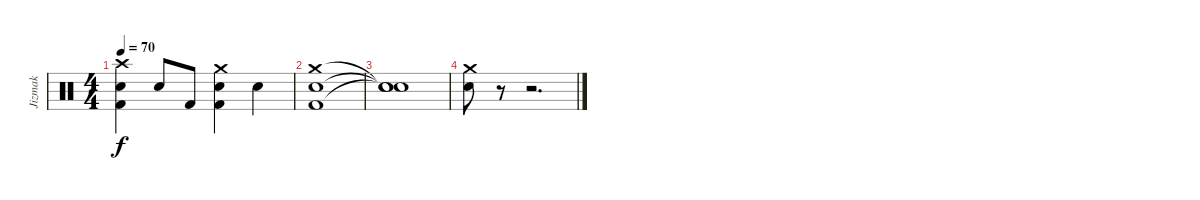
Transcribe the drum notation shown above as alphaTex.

\track ("Jizmak" "Jizmak") {instrument percussion}
\staff {score}
\articulation defaults
\ts (4 4)
\tempo 70
\clef neutral
\ks c
("Crash high (hit)" "Kick (hit) 2" "Snare (hit) 2").4{dy f} "Snare (hit) 2".8 "Kick (hit) 2".8 ("Crash medium (hit)" "Kick (hit) 2" "Snare (hit) 2").4 "Snare (hit) 2".4 |
("Crash medium (hit)" "Kick (hit) 2" "Snare (hit) 2").1 |
("Snare (hit)"{t} "Snare (hit)"{t} "Snare (hit)"{t}).1 |
("Snare (hit) 2" "Crash medium (hit)").8 r.8 r.2{d}
